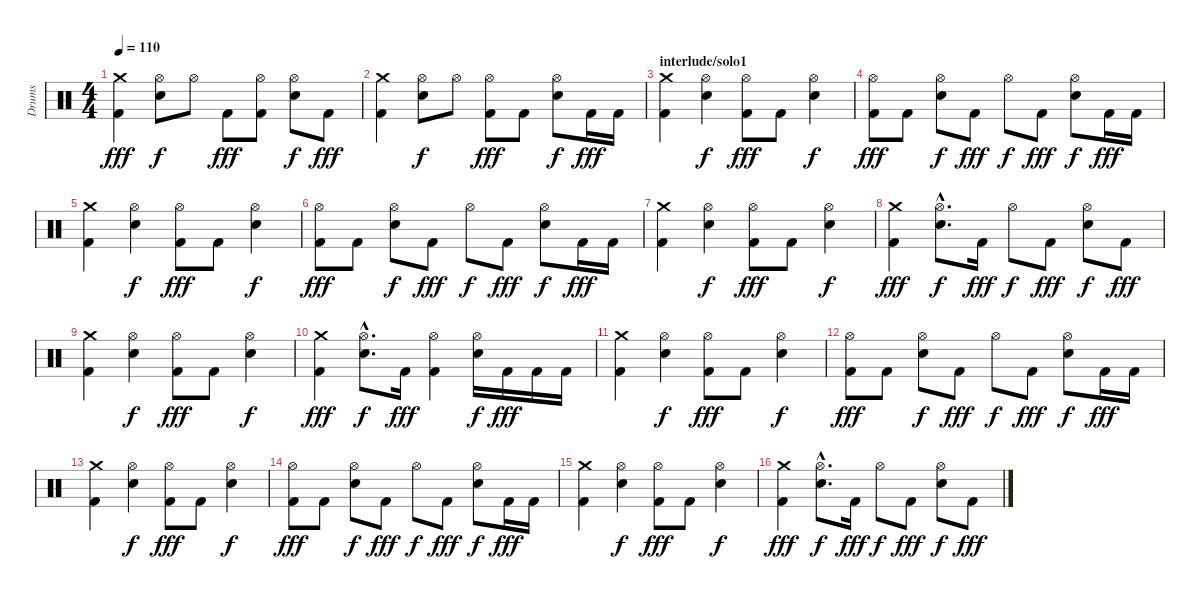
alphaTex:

\track ("Drums" "Drums") {instrument percussion}
\staff {score}
\articulation defaults
\ts (4 4)
\tempo 110
\clef neutral
\ks c
("Crash medium (hit)" "Kick (hit) 2").4{dy fff} ("Hi-Hat (open)" "Electric Snare (hit)").8{dy f} "Hi-Hat (open)".8 "Kick (hit) 2".8{dy fff} ("Hi-Hat (open)" "Kick (hit) 2").8 ("Hi-Hat (open)" "Electric Snare (hit)").8{dy f} "Kick (hit) 2".8{dy fff} |
("Crash medium (hit)" "Kick (hit) 2").4 ("Hi-Hat (open)" "Electric Snare (hit)").8{dy f} "Hi-Hat (open)".8 ("Hi-Hat (open)" "Kick (hit) 2").8{dy fff} "Kick (hit) 2".8 ("Hi-Hat (open)" "Electric Snare (hit)").8{dy f} "Kick (hit) 2".16{dy fff} "Kick (hit) 2".16 |
\section ("" "interlude/solo1")
("Crash medium (hit)" "Kick (hit) 2").4 ("Hi-Hat (open)" "Electric Snare (hit)").4{dy f} ("Hi-Hat (open)" "Kick (hit) 2").8{dy fff} "Kick (hit) 2".8 ("Hi-Hat (open)" "Electric Snare (hit)").4{dy f} |
("Hi-Hat (open)" "Kick (hit) 2").8{dy fff} "Kick (hit) 2".8 ("Hi-Hat (open)" "Electric Snare (hit)").8{dy f} "Kick (hit) 2".8{dy fff} "Hi-Hat (open)".8{dy f} "Kick (hit) 2".8{dy fff} ("Hi-Hat (open)" "Electric Snare (hit)").8{dy f} "Kick (hit) 2".16{dy fff} "Kick (hit) 2".16 |
("Crash medium (hit)" "Kick (hit) 2").4 ("Hi-Hat (open)" "Electric Snare (hit)").4{dy f} ("Hi-Hat (open)" "Kick (hit) 2").8{dy fff} "Kick (hit) 2".8 ("Hi-Hat (open)" "Electric Snare (hit)").4{dy f} |
("Hi-Hat (open)" "Kick (hit) 2").8{dy fff} "Kick (hit) 2".8 ("Hi-Hat (open)" "Electric Snare (hit)").8{dy f} "Kick (hit) 2".8{dy fff} "Hi-Hat (open)".8{dy f} "Kick (hit) 2".8{dy fff} ("Hi-Hat (open)" "Electric Snare (hit)").8{dy f} "Kick (hit) 2".16{dy fff} "Kick (hit) 2".16 |
("Crash medium (hit)" "Kick (hit) 2").4 ("Hi-Hat (open)" "Electric Snare (hit)").4{dy f} ("Hi-Hat (open)" "Kick (hit) 2").8{dy fff} "Kick (hit) 2".8 ("Hi-Hat (open)" "Electric Snare (hit)").4{dy f} |
("Crash medium (hit)" "Kick (hit) 2").4{dy fff} ("Hi-Hat (open)"{hac} "Electric Snare (hit)"{hac}).8{d dy f} "Kick (hit) 2".16{dy fff} "Hi-Hat (open)".8{dy f} "Kick (hit) 2".8{dy fff} ("Hi-Hat (open)" "Electric Snare (hit)").8{dy f} "Kick (hit) 2".8{dy fff} |
("Crash medium (hit)" "Kick (hit) 2").4 ("Hi-Hat (open)" "Electric Snare (hit)").4{dy f} ("Hi-Hat (open)" "Kick (hit) 2").8{dy fff} "Kick (hit) 2".8 ("Hi-Hat (open)" "Electric Snare (hit)").4{dy f} |
("Crash medium (hit)" "Kick (hit) 2").4{dy fff} ("Hi-Hat (open)"{hac} "Electric Snare (hit)"{hac}).8{d dy f} "Kick (hit) 2".16{dy fff} ("Hi-Hat (open)" "Kick (hit) 2").4 ("Hi-Hat (open)" "Electric Snare (hit)").16{dy f} "Kick (hit) 2".16{dy fff} "Kick (hit) 2".16 "Kick (hit) 2".16 |
("Crash medium (hit)" "Kick (hit) 2").4 ("Hi-Hat (open)" "Electric Snare (hit)").4{dy f} ("Hi-Hat (open)" "Kick (hit) 2").8{dy fff} "Kick (hit) 2".8 ("Hi-Hat (open)" "Electric Snare (hit)").4{dy f} |
("Hi-Hat (open)" "Kick (hit) 2").8{dy fff} "Kick (hit) 2".8 ("Hi-Hat (open)" "Electric Snare (hit)").8{dy f} "Kick (hit) 2".8{dy fff} "Hi-Hat (open)".8{dy f} "Kick (hit) 2".8{dy fff} ("Hi-Hat (open)" "Electric Snare (hit)").8{dy f} "Kick (hit) 2".16{dy fff} "Kick (hit) 2".16 |
("Crash medium (hit)" "Kick (hit) 2").4 ("Hi-Hat (open)" "Electric Snare (hit)").4{dy f} ("Hi-Hat (open)" "Kick (hit) 2").8{dy fff} "Kick (hit) 2".8 ("Hi-Hat (open)" "Electric Snare (hit)").4{dy f} |
("Hi-Hat (open)" "Kick (hit) 2").8{dy fff} "Kick (hit) 2".8 ("Hi-Hat (open)" "Electric Snare (hit)").8{dy f} "Kick (hit) 2".8{dy fff} "Hi-Hat (open)".8{dy f} "Kick (hit) 2".8{dy fff} ("Hi-Hat (open)" "Electric Snare (hit)").8{dy f} "Kick (hit) 2".16{dy fff} "Kick (hit) 2".16 |
("Crash medium (hit)" "Kick (hit) 2").4 ("Hi-Hat (open)" "Electric Snare (hit)").4{dy f} ("Hi-Hat (open)" "Kick (hit) 2").8{dy fff} "Kick (hit) 2".8 ("Hi-Hat (open)" "Electric Snare (hit)").4{dy f} |
("Crash medium (hit)" "Kick (hit) 2").4{dy fff} ("Hi-Hat (open)"{hac} "Electric Snare (hit)"{hac}).8{d dy f} "Kick (hit) 2".16{dy fff} "Hi-Hat (open)".8{dy f} "Kick (hit) 2".8{dy fff} ("Hi-Hat (open)" "Electric Snare (hit)").8{dy f} "Kick (hit) 2".8{dy fff}
